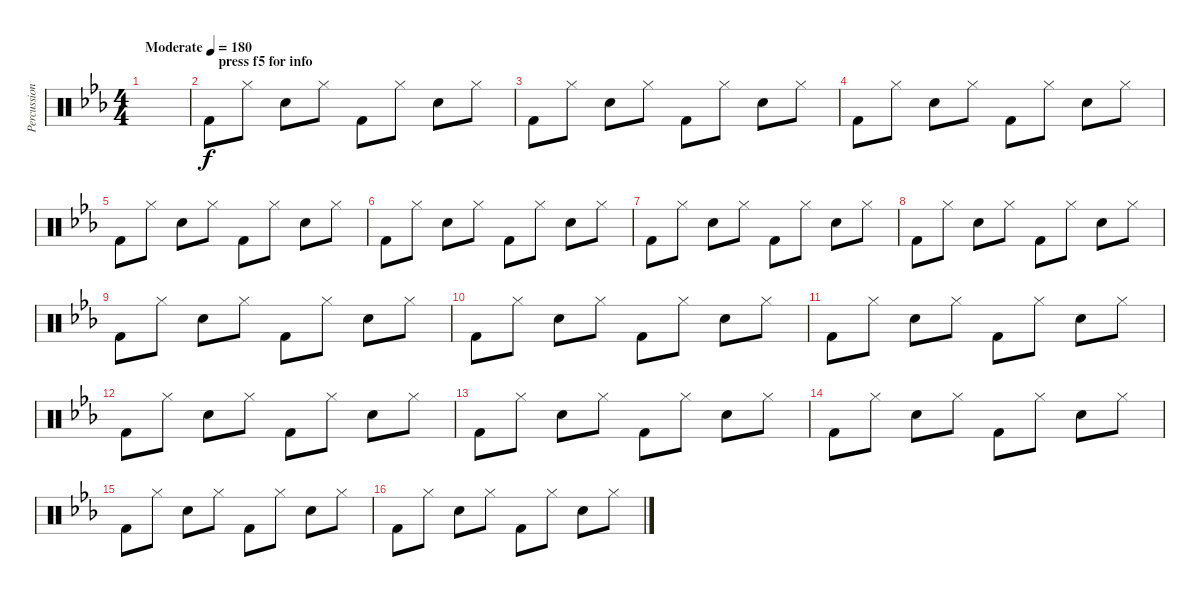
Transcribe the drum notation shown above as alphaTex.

\track ("Percussion" "Percussion") {instrument percussion}
\staff {score}
\articulation defaults
\ts (4 4)
\section ("" "                     press f5 for info")
\tempo (180 "Moderate")
\clef neutral
\ks cminor
|
"Kick (hit) 2".8 "Hi-Hat (closed)".8 "Snare (hit) 2".8 "Hi-Hat (closed)".8 "Kick (hit) 2".8 "Hi-Hat (closed)".8 "Snare (hit) 2".8 "Hi-Hat (closed)".8 |
"Kick (hit) 2".8 "Hi-Hat (closed)".8 "Snare (hit) 2".8 "Hi-Hat (closed)".8 "Kick (hit) 2".8 "Hi-Hat (closed)".8 "Snare (hit) 2".8 "Hi-Hat (closed)".8 |
"Kick (hit) 2".8 "Hi-Hat (closed)".8 "Snare (hit) 2".8 "Hi-Hat (closed)".8 "Kick (hit) 2".8 "Hi-Hat (closed)".8 "Snare (hit) 2".8 "Hi-Hat (closed)".8 |
"Kick (hit) 2".8 "Hi-Hat (closed)".8 "Snare (hit) 2".8 "Hi-Hat (closed)".8 "Kick (hit) 2".8 "Hi-Hat (closed)".8 "Snare (hit) 2".8 "Hi-Hat (closed)".8 |
"Kick (hit) 2".8 "Hi-Hat (closed)".8 "Snare (hit) 2".8 "Hi-Hat (closed)".8 "Kick (hit) 2".8 "Hi-Hat (closed)".8 "Snare (hit) 2".8 "Hi-Hat (closed)".8 |
"Kick (hit) 2".8 "Hi-Hat (closed)".8 "Snare (hit) 2".8 "Hi-Hat (closed)".8 "Kick (hit) 2".8 "Hi-Hat (closed)".8 "Snare (hit) 2".8 "Hi-Hat (closed)".8 |
"Kick (hit) 2".8 "Hi-Hat (closed)".8 "Snare (hit) 2".8 "Hi-Hat (closed)".8 "Kick (hit) 2".8 "Hi-Hat (closed)".8 "Snare (hit) 2".8 "Hi-Hat (closed)".8 |
"Kick (hit) 2".8 "Hi-Hat (closed)".8 "Snare (hit) 2".8 "Hi-Hat (closed)".8 "Kick (hit) 2".8 "Hi-Hat (closed)".8 "Snare (hit) 2".8 "Hi-Hat (closed)".8 |
"Kick (hit) 2".8 "Hi-Hat (closed)".8 "Snare (hit) 2".8 "Hi-Hat (closed)".8 "Kick (hit) 2".8 "Hi-Hat (closed)".8 "Snare (hit) 2".8 "Hi-Hat (closed)".8 |
"Kick (hit) 2".8 "Hi-Hat (closed)".8 "Snare (hit) 2".8 "Hi-Hat (closed)".8 "Kick (hit) 2".8 "Hi-Hat (closed)".8 "Snare (hit) 2".8 "Hi-Hat (closed)".8 |
"Kick (hit) 2".8 "Hi-Hat (closed)".8 "Snare (hit) 2".8 "Hi-Hat (closed)".8 "Kick (hit) 2".8 "Hi-Hat (closed)".8 "Snare (hit) 2".8 "Hi-Hat (closed)".8 |
"Kick (hit) 2".8 "Hi-Hat (closed)".8 "Snare (hit) 2".8 "Hi-Hat (closed)".8 "Kick (hit) 2".8 "Hi-Hat (closed)".8 "Snare (hit) 2".8 "Hi-Hat (closed)".8 |
"Kick (hit) 2".8 "Hi-Hat (closed)".8 "Snare (hit) 2".8 "Hi-Hat (closed)".8 "Kick (hit) 2".8 "Hi-Hat (closed)".8 "Snare (hit) 2".8 "Hi-Hat (closed)".8 |
"Kick (hit) 2".8 "Hi-Hat (closed)".8 "Snare (hit) 2".8 "Hi-Hat (closed)".8 "Kick (hit) 2".8 "Hi-Hat (closed)".8 "Snare (hit) 2".8 "Hi-Hat (closed)".8 |
"Kick (hit) 2".8 "Hi-Hat (closed)".8 "Snare (hit) 2".8 "Hi-Hat (closed)".8 "Kick (hit) 2".8 "Hi-Hat (closed)".8 "Snare (hit) 2".8 "Hi-Hat (closed)".8
